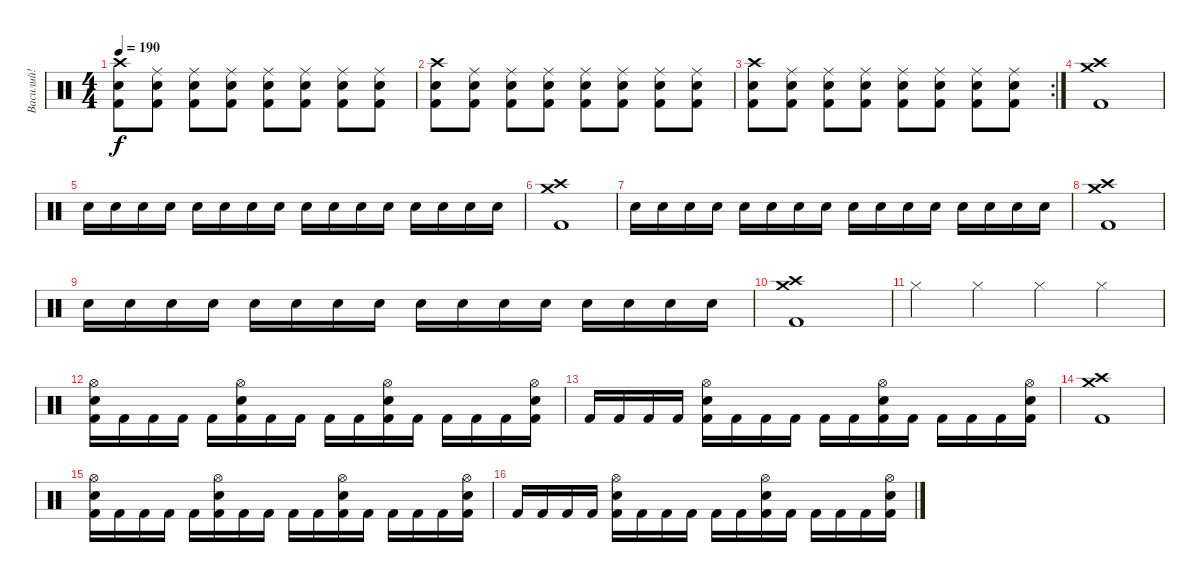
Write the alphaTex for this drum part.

\track ("Василий!" "Василий!") {instrument percussion}
\staff {score}
\articulation defaults
\ts (4 4)
\tempo 190
\clef neutral
\ks c
("Kick (hit) 2" "Electric Snare (hit)" "Crash high (hit)").8{dy f} ("Kick (hit) 2" "Electric Snare (hit)" "Ride (middle)").8 ("Kick (hit) 2" "Electric Snare (hit)" "Ride (middle)").8 ("Kick (hit) 2" "Electric Snare (hit)" "Ride (middle)").8 ("Kick (hit) 2" "Electric Snare (hit)" "Ride (middle)").8 ("Kick (hit) 2" "Electric Snare (hit)" "Ride (middle)").8 ("Kick (hit) 2" "Electric Snare (hit)" "Ride (middle)").8 ("Kick (hit) 2" "Electric Snare (hit)" "Ride (middle)").8 |
("Kick (hit) 2" "Electric Snare (hit)" "Crash high (hit)").8 ("Kick (hit) 2" "Electric Snare (hit)" "Ride (middle)").8 ("Kick (hit) 2" "Electric Snare (hit)" "Ride (middle)").8 ("Kick (hit) 2" "Electric Snare (hit)" "Ride (middle)").8 ("Kick (hit) 2" "Electric Snare (hit)" "Ride (middle)").8 ("Kick (hit) 2" "Electric Snare (hit)" "Ride (middle)").8 ("Kick (hit) 2" "Electric Snare (hit)" "Ride (middle)").8 ("Kick (hit) 2" "Electric Snare (hit)" "Ride (middle)").8 |
\rc 2
("Kick (hit) 2" "Electric Snare (hit)" "Crash high (hit)").8 ("Kick (hit) 2" "Electric Snare (hit)" "Ride (middle)").8 ("Kick (hit) 2" "Electric Snare (hit)" "Ride (middle)").8 ("Kick (hit) 2" "Electric Snare (hit)" "Ride (middle)").8 ("Kick (hit) 2" "Electric Snare (hit)" "Ride (middle)").8 ("Kick (hit) 2" "Electric Snare (hit)" "Ride (middle)").8 ("Kick (hit) 2" "Electric Snare (hit)" "Ride (middle)").8 ("Kick (hit) 2" "Electric Snare (hit)" "Ride (middle)").8 |
("Kick (hit) 2" "Crash high (hit)" "Crash medium (hit)").1 |
"Electric Snare (hit)".16 "Electric Snare (hit)".16 "Electric Snare (hit)".16 "Electric Snare (hit)".16 "Electric Snare (hit)".16 "Electric Snare (hit)".16 "Electric Snare (hit)".16 "Electric Snare (hit)".16 "Electric Snare (hit)".16 "Electric Snare (hit)".16 "Electric Snare (hit)".16 "Electric Snare (hit)".16 "Electric Snare (hit)".16 "Electric Snare (hit)".16 "Electric Snare (hit)".16 "Electric Snare (hit)".16 |
("Kick (hit) 2" "Crash high (hit)" "Crash medium (hit)").1 |
"Electric Snare (hit)".16 "Electric Snare (hit)".16 "Electric Snare (hit)".16 "Electric Snare (hit)".16 "Electric Snare (hit)".16 "Electric Snare (hit)".16 "Electric Snare (hit)".16 "Electric Snare (hit)".16 "Electric Snare (hit)".16 "Electric Snare (hit)".16 "Electric Snare (hit)".16 "Electric Snare (hit)".16 "Electric Snare (hit)".16 "Electric Snare (hit)".16 "Electric Snare (hit)".16 "Electric Snare (hit)".16 |
("Kick (hit) 2" "Crash high (hit)" "Crash medium (hit)").1 |
"Electric Snare (hit)".16 "Electric Snare (hit)".16 "Electric Snare (hit)".16 "Electric Snare (hit)".16 "Electric Snare (hit)".16 "Electric Snare (hit)".16 "Electric Snare (hit)".16 "Electric Snare (hit)".16 "Electric Snare (hit)".16 "Electric Snare (hit)".16 "Electric Snare (hit)".16 "Electric Snare (hit)".16 "Electric Snare (hit)".16 "Electric Snare (hit)".16 "Electric Snare (hit)".16 "Electric Snare (hit)".16 |
("Kick (hit) 2" "Crash high (hit)" "Crash medium (hit)").1 |
"Hi-Hat (closed)".4 "Hi-Hat (closed)".4 "Hi-Hat (closed)".4 "Hi-Hat (closed)".4 |
("Kick (hit) 2" "Electric Snare (hit)" "Hi-Hat (open)").16 "Kick (hit) 2".16 "Kick (hit) 2".16 "Kick (hit) 2".16 "Kick (hit) 2".16 ("Kick (hit) 2" "Electric Snare (hit)" "Hi-Hat (open)").16 "Kick (hit) 2".16 "Kick (hit) 2".16 "Kick (hit) 2".16 "Kick (hit) 2".16 ("Kick (hit) 2" "Electric Snare (hit)" "Hi-Hat (open)").16 "Kick (hit) 2".16 "Kick (hit) 2".16 "Kick (hit) 2".16 "Kick (hit) 2".16 ("Kick (hit) 2" "Electric Snare (hit)" "Hi-Hat (open)").16 |
"Kick (hit) 2".16 "Kick (hit) 2".16 "Kick (hit) 2".16 "Kick (hit) 2".16 ("Kick (hit) 2" "Electric Snare (hit)" "Hi-Hat (open)").16 "Kick (hit) 2".16 "Kick (hit) 2".16 "Kick (hit) 2".16 "Kick (hit) 2".16 "Kick (hit) 2".16 ("Kick (hit) 2" "Electric Snare (hit)" "Hi-Hat (open)").16 "Kick (hit) 2".16 "Kick (hit) 2".16 "Kick (hit) 2".16 "Kick (hit) 2".16 ("Kick (hit) 2" "Electric Snare (hit)" "Hi-Hat (open)").16 |
("Kick (hit) 2" "Crash high (hit)" "Crash medium (hit)").1 |
("Kick (hit) 2" "Electric Snare (hit)" "Hi-Hat (open)").16 "Kick (hit) 2".16 "Kick (hit) 2".16 "Kick (hit) 2".16 "Kick (hit) 2".16 ("Kick (hit) 2" "Electric Snare (hit)" "Hi-Hat (open)").16 "Kick (hit) 2".16 "Kick (hit) 2".16 "Kick (hit) 2".16 "Kick (hit) 2".16 ("Kick (hit) 2" "Electric Snare (hit)" "Hi-Hat (open)").16 "Kick (hit) 2".16 "Kick (hit) 2".16 "Kick (hit) 2".16 "Kick (hit) 2".16 ("Kick (hit) 2" "Electric Snare (hit)" "Hi-Hat (open)").16 |
"Kick (hit) 2".16 "Kick (hit) 2".16 "Kick (hit) 2".16 "Kick (hit) 2".16 ("Kick (hit) 2" "Electric Snare (hit)" "Hi-Hat (open)").16 "Kick (hit) 2".16 "Kick (hit) 2".16 "Kick (hit) 2".16 "Kick (hit) 2".16 "Kick (hit) 2".16 ("Kick (hit) 2" "Electric Snare (hit)" "Hi-Hat (open)").16 "Kick (hit) 2".16 "Kick (hit) 2".16 "Kick (hit) 2".16 "Kick (hit) 2".16 ("Kick (hit) 2" "Electric Snare (hit)" "Hi-Hat (open)").16
